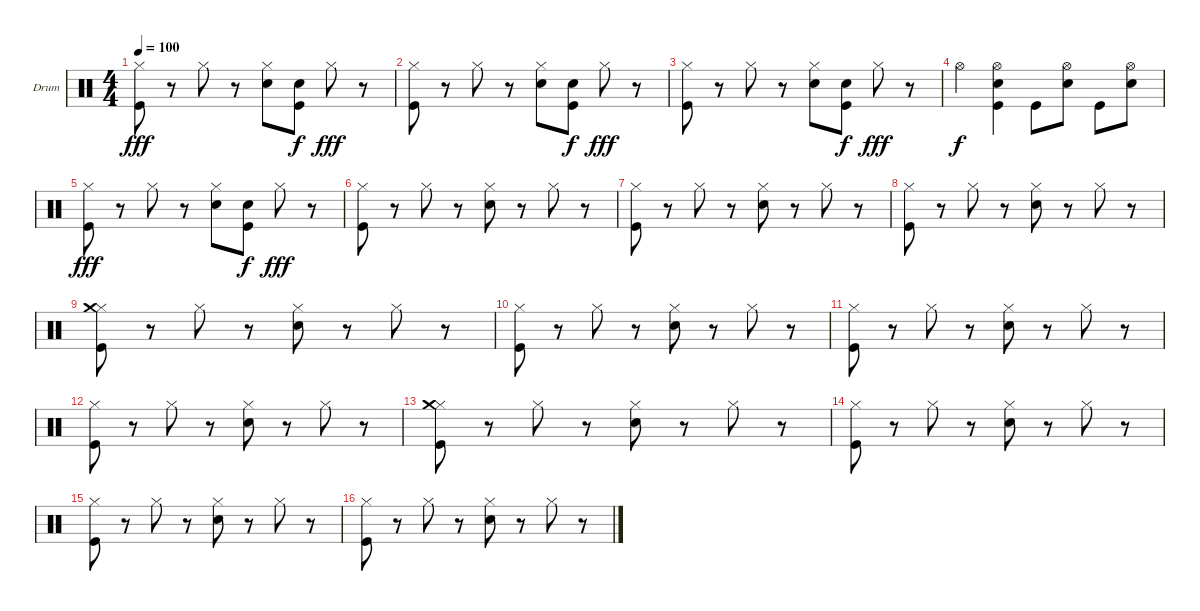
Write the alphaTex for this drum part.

\defaultSystemsLayout 4
\bracketExtendMode groupsimilarinstruments
\firstSystemTrackNameOrientation horizontal
\otherSystemsTrackNameOrientation horizontal
\track ("Drum" "Drum") {instrument percussion}
\staff {score}
\articulation defaults
\ts (4 4)
\tempo 100
\clef neutral
\scale
0.333333
\ks c
("Hi-Hat (closed)" "Kick (hit)").8{dy fff} r.8 "Hi-Hat (closed)".8 r.8 ("Hi-Hat (closed)" "Snare (hit) 2").8 ("Snare (hit) 2" "Kick (hit)").8{dy f} "Hi-Hat (closed)".8{dy fff} r.8 |
\scale
0.333333 ("Hi-Hat (closed)" "Kick (hit)").8 r.8 "Hi-Hat (closed)".8 r.8 ("Hi-Hat (closed)" "Snare (hit) 2").8 ("Snare (hit) 2" "Kick (hit)").8{dy f} "Hi-Hat (closed)".8{dy fff} r.8 |
\scale
0.333333 ("Hi-Hat (closed)" "Kick (hit)").8 r.8 "Hi-Hat (closed)".8 r.8 ("Hi-Hat (closed)" "Snare (hit) 2").8 ("Snare (hit) 2" "Kick (hit)").8{dy f} "Hi-Hat (closed)".8{dy fff} r.8 |
\scale
0.333333 "Hi-Hat (open)".4{dy f} ("Kick (hit)" "Snare (hit) 2" "Hi-Hat (open)").4 "Kick (hit)".8 ("Hi-Hat (open)" "Snare (hit) 2").8 "Kick (hit)".8 ("Snare (hit) 2" "Hi-Hat (open)").8 |
\scale
0.333333 ("Hi-Hat (closed)" "Kick (hit)").8{dy fff} r.8 "Hi-Hat (closed)".8 r.8 ("Hi-Hat (closed)" "Snare (hit) 2").8 ("Snare (hit) 2" "Kick (hit)").8{dy f} "Hi-Hat (closed)".8{dy fff} r.8 |
\scale
0.333333 ("Hi-Hat (closed)" "Kick (hit)").8 r.8 "Hi-Hat (closed)".8 r.8 ("Hi-Hat (closed)" "Snare (hit) 2").8 r.8 "Hi-Hat (closed)".8 r.8 |
\scale
0.333333 ("Hi-Hat (closed)" "Kick (hit)").8 r.8 "Hi-Hat (closed)".8 r.8 ("Hi-Hat (closed)" "Snare (hit) 2").8 r.8 "Hi-Hat (closed)".8 r.8 |
\scale
0.333333 ("Hi-Hat (closed)" "Kick (hit)").8 r.8 "Hi-Hat (closed)".8 r.8 ("Hi-Hat (closed)" "Snare (hit) 2").8 r.8 "Hi-Hat (closed)".8 r.8 |
\scale
0.333333 ("Hi-Hat (closed)" "Crash medium (hit)" "Kick (hit)").8 r.8 "Hi-Hat (closed)".8 r.8 ("Hi-Hat (closed)" "Snare (hit) 2").8 r.8 "Hi-Hat (closed)".8 r.8 |
\scale
0.333333 ("Hi-Hat (closed)" "Kick (hit)").8 r.8 "Hi-Hat (closed)".8 r.8 ("Hi-Hat (closed)" "Snare (hit) 2").8 r.8 "Hi-Hat (closed)".8 r.8 |
\scale
0.333333 ("Hi-Hat (closed)" "Kick (hit)").8 r.8 "Hi-Hat (closed)".8 r.8 ("Hi-Hat (closed)" "Snare (hit) 2").8 r.8 "Hi-Hat (closed)".8 r.8 |
\scale
0.333333 ("Hi-Hat (closed)" "Kick (hit)").8 r.8 "Hi-Hat (closed)".8 r.8 ("Hi-Hat (closed)" "Snare (hit) 2").8 r.8 "Hi-Hat (closed)".8 r.8 |
\scale
0.333333 ("Hi-Hat (closed)" "Crash medium (hit)" "Kick (hit)").8 r.8 "Hi-Hat (closed)".8 r.8 ("Hi-Hat (closed)" "Snare (hit) 2").8 r.8 "Hi-Hat (closed)".8 r.8 |
\scale
0.333333 ("Hi-Hat (closed)" "Kick (hit)").8 r.8 "Hi-Hat (closed)".8 r.8 ("Hi-Hat (closed)" "Snare (hit) 2").8 r.8 "Hi-Hat (closed)".8 r.8 |
\scale
0.333333 ("Hi-Hat (closed)" "Kick (hit)").8 r.8 "Hi-Hat (closed)".8 r.8 ("Hi-Hat (closed)" "Snare (hit) 2").8 r.8 "Hi-Hat (closed)".8 r.8 |
\scale
0.333333 ("Hi-Hat (closed)" "Kick (hit)").8 r.8 "Hi-Hat (closed)".8 r.8 ("Hi-Hat (closed)" "Snare (hit) 2").8 r.8 "Hi-Hat (closed)".8 r.8
